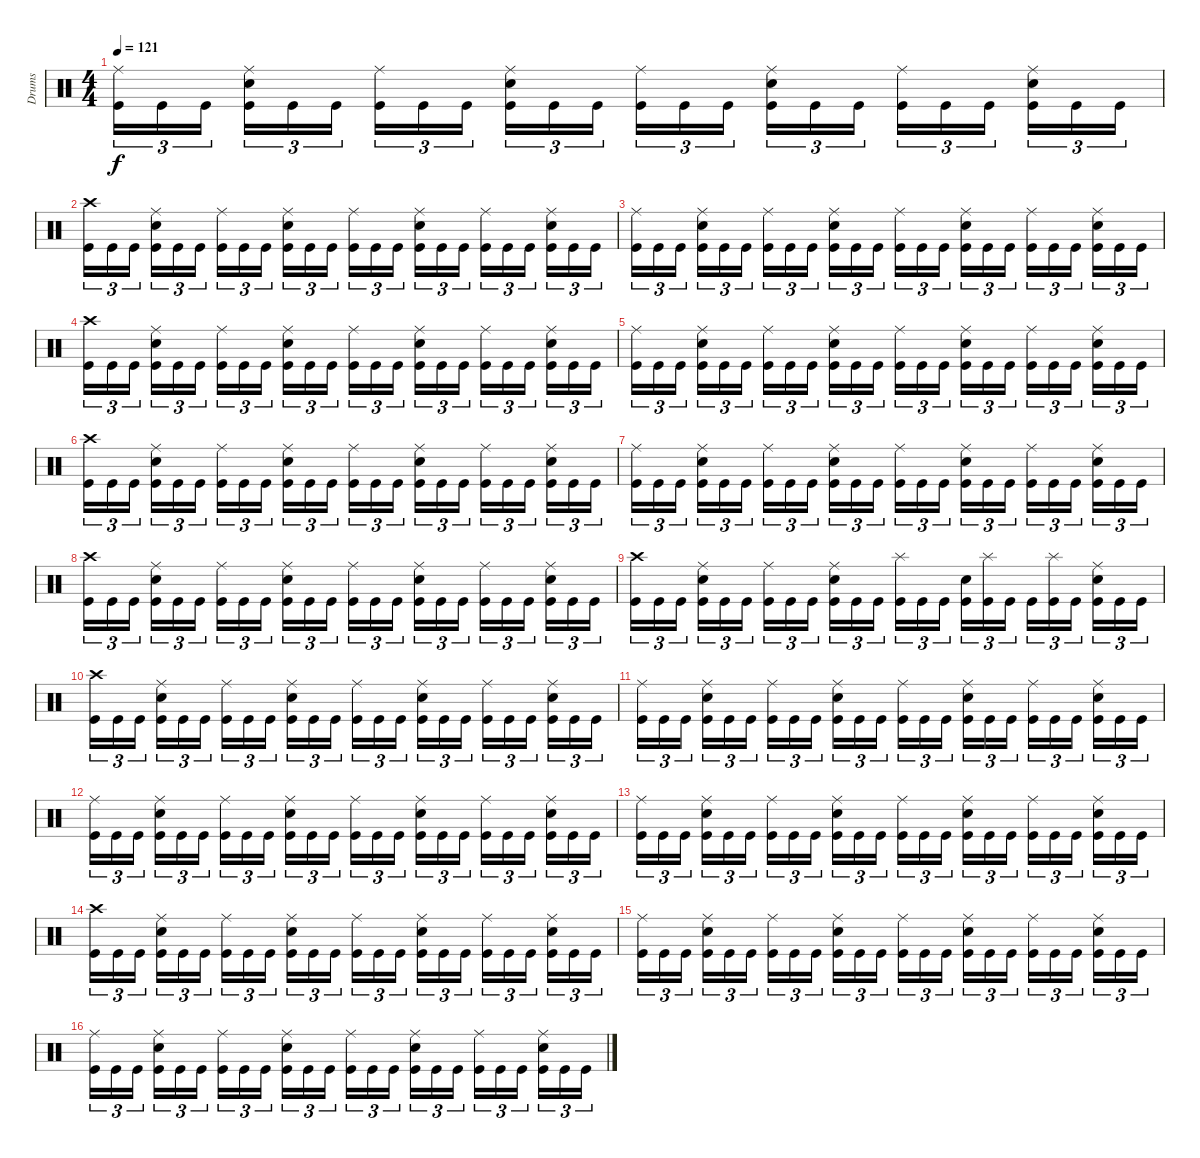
\track ("Drums" "Drums") {instrument percussion}
\staff {score}
\articulation defaults
\ts (4 4)
\tempo 121
\clef neutral
\ks c
("Ride (middle)" "Kick (hit)").16{tu (3 2) dy f} "Kick (hit)".16{tu (3 2)} "Kick (hit)".16{tu (3 2)} ("Ride (middle)" "Electric Snare (hit)" "Kick (hit)").16{tu (3 2)} "Kick (hit)".16{tu (3 2)} "Kick (hit)".16{tu (3 2)} ("Ride (middle)" "Kick (hit)").16{tu (3 2)} "Kick (hit)".16{tu (3 2)} "Kick (hit)".16{tu (3 2)} ("Ride (middle)" "Electric Snare (hit)" "Kick (hit)").16{tu (3 2)} "Kick (hit)".16{tu (3 2)} "Kick (hit)".16{tu (3 2)} ("Ride (middle)" "Kick (hit)").16{tu (3 2)} "Kick (hit)".16{tu (3 2)} "Kick (hit)".16{tu (3 2)} ("Ride (middle)" "Electric Snare (hit)" "Kick (hit)").16{tu (3 2)} "Kick (hit)".16{tu (3 2)} "Kick (hit)".16{tu (3 2)} ("Ride (middle)" "Kick (hit)").16{tu (3 2)} "Kick (hit)".16{tu (3 2)} "Kick (hit)".16{tu (3 2)} ("Ride (middle)" "Electric Snare (hit)" "Kick (hit)").16{tu (3 2)} "Kick (hit)".16{tu (3 2)} "Kick (hit)".16{tu (3 2)} |
("Crash high (hit)" "Kick (hit)").16{tu (3 2)} "Kick (hit)".16{tu (3 2)} "Kick (hit)".16{tu (3 2)} ("Ride (middle)" "Electric Snare (hit)" "Kick (hit)").16{tu (3 2)} "Kick (hit)".16{tu (3 2)} "Kick (hit)".16{tu (3 2)} ("Ride (middle)" "Kick (hit)").16{tu (3 2)} "Kick (hit)".16{tu (3 2)} "Kick (hit)".16{tu (3 2)} ("Ride (middle)" "Electric Snare (hit)" "Kick (hit)").16{tu (3 2)} "Kick (hit)".16{tu (3 2)} "Kick (hit)".16{tu (3 2)} ("Ride (middle)" "Kick (hit)").16{tu (3 2)} "Kick (hit)".16{tu (3 2)} "Kick (hit)".16{tu (3 2)} ("Ride (middle)" "Electric Snare (hit)" "Kick (hit)").16{tu (3 2)} "Kick (hit)".16{tu (3 2)} "Kick (hit)".16{tu (3 2)} ("Ride (middle)" "Kick (hit)").16{tu (3 2)} "Kick (hit)".16{tu (3 2)} "Kick (hit)".16{tu (3 2)} ("Ride (middle)" "Electric Snare (hit)" "Kick (hit)").16{tu (3 2)} "Kick (hit)".16{tu (3 2)} "Kick (hit)".16{tu (3 2)} |
("Ride (middle)" "Kick (hit)").16{tu (3 2)} "Kick (hit)".16{tu (3 2)} "Kick (hit)".16{tu (3 2)} ("Ride (middle)" "Electric Snare (hit)" "Kick (hit)").16{tu (3 2)} "Kick (hit)".16{tu (3 2)} "Kick (hit)".16{tu (3 2)} ("Ride (middle)" "Kick (hit)").16{tu (3 2)} "Kick (hit)".16{tu (3 2)} "Kick (hit)".16{tu (3 2)} ("Ride (middle)" "Electric Snare (hit)" "Kick (hit)").16{tu (3 2)} "Kick (hit)".16{tu (3 2)} "Kick (hit)".16{tu (3 2)} ("Ride (middle)" "Kick (hit)").16{tu (3 2)} "Kick (hit)".16{tu (3 2)} "Kick (hit)".16{tu (3 2)} ("Ride (middle)" "Electric Snare (hit)" "Kick (hit)").16{tu (3 2)} "Kick (hit)".16{tu (3 2)} "Kick (hit)".16{tu (3 2)} ("Ride (middle)" "Kick (hit)").16{tu (3 2)} "Kick (hit)".16{tu (3 2)} "Kick (hit)".16{tu (3 2)} ("Ride (middle)" "Electric Snare (hit)" "Kick (hit)").16{tu (3 2)} "Kick (hit)".16{tu (3 2)} "Kick (hit)".16{tu (3 2)} |
("Crash high (hit)" "Kick (hit)").16{tu (3 2)} "Kick (hit)".16{tu (3 2)} "Kick (hit)".16{tu (3 2)} ("Ride (middle)" "Electric Snare (hit)" "Kick (hit)").16{tu (3 2)} "Kick (hit)".16{tu (3 2)} "Kick (hit)".16{tu (3 2)} ("Ride (middle)" "Kick (hit)").16{tu (3 2)} "Kick (hit)".16{tu (3 2)} "Kick (hit)".16{tu (3 2)} ("Ride (middle)" "Electric Snare (hit)" "Kick (hit)").16{tu (3 2)} "Kick (hit)".16{tu (3 2)} "Kick (hit)".16{tu (3 2)} ("Ride (middle)" "Kick (hit)").16{tu (3 2)} "Kick (hit)".16{tu (3 2)} "Kick (hit)".16{tu (3 2)} ("Ride (middle)" "Electric Snare (hit)" "Kick (hit)").16{tu (3 2)} "Kick (hit)".16{tu (3 2)} "Kick (hit)".16{tu (3 2)} ("Ride (middle)" "Kick (hit)").16{tu (3 2)} "Kick (hit)".16{tu (3 2)} "Kick (hit)".16{tu (3 2)} ("Ride (middle)" "Electric Snare (hit)" "Kick (hit)").16{tu (3 2)} "Kick (hit)".16{tu (3 2)} "Kick (hit)".16{tu (3 2)} |
("Ride (middle)" "Kick (hit)").16{tu (3 2)} "Kick (hit)".16{tu (3 2)} "Kick (hit)".16{tu (3 2)} ("Ride (middle)" "Electric Snare (hit)" "Kick (hit)").16{tu (3 2)} "Kick (hit)".16{tu (3 2)} "Kick (hit)".16{tu (3 2)} ("Ride (middle)" "Kick (hit)").16{tu (3 2)} "Kick (hit)".16{tu (3 2)} "Kick (hit)".16{tu (3 2)} ("Ride (middle)" "Electric Snare (hit)" "Kick (hit)").16{tu (3 2)} "Kick (hit)".16{tu (3 2)} "Kick (hit)".16{tu (3 2)} ("Ride (middle)" "Kick (hit)").16{tu (3 2)} "Kick (hit)".16{tu (3 2)} "Kick (hit)".16{tu (3 2)} ("Ride (middle)" "Electric Snare (hit)" "Kick (hit)").16{tu (3 2)} "Kick (hit)".16{tu (3 2)} "Kick (hit)".16{tu (3 2)} ("Ride (middle)" "Kick (hit)").16{tu (3 2)} "Kick (hit)".16{tu (3 2)} "Kick (hit)".16{tu (3 2)} ("Ride (middle)" "Electric Snare (hit)" "Kick (hit)").16{tu (3 2)} "Kick (hit)".16{tu (3 2)} "Kick (hit)".16{tu (3 2)} |
("Crash high (hit)" "Kick (hit)").16{tu (3 2)} "Kick (hit)".16{tu (3 2)} "Kick (hit)".16{tu (3 2)} ("Ride (middle)" "Electric Snare (hit)" "Kick (hit)").16{tu (3 2)} "Kick (hit)".16{tu (3 2)} "Kick (hit)".16{tu (3 2)} ("Ride (middle)" "Kick (hit)").16{tu (3 2)} "Kick (hit)".16{tu (3 2)} "Kick (hit)".16{tu (3 2)} ("Ride (middle)" "Electric Snare (hit)" "Kick (hit)").16{tu (3 2)} "Kick (hit)".16{tu (3 2)} "Kick (hit)".16{tu (3 2)} ("Ride (middle)" "Kick (hit)").16{tu (3 2)} "Kick (hit)".16{tu (3 2)} "Kick (hit)".16{tu (3 2)} ("Ride (middle)" "Electric Snare (hit)" "Kick (hit)").16{tu (3 2)} "Kick (hit)".16{tu (3 2)} "Kick (hit)".16{tu (3 2)} ("Ride (middle)" "Kick (hit)").16{tu (3 2)} "Kick (hit)".16{tu (3 2)} "Kick (hit)".16{tu (3 2)} ("Ride (middle)" "Electric Snare (hit)" "Kick (hit)").16{tu (3 2)} "Kick (hit)".16{tu (3 2)} "Kick (hit)".16{tu (3 2)} |
("Ride (middle)" "Kick (hit)").16{tu (3 2)} "Kick (hit)".16{tu (3 2)} "Kick (hit)".16{tu (3 2)} ("Ride (middle)" "Electric Snare (hit)" "Kick (hit)").16{tu (3 2)} "Kick (hit)".16{tu (3 2)} "Kick (hit)".16{tu (3 2)} ("Ride (middle)" "Kick (hit)").16{tu (3 2)} "Kick (hit)".16{tu (3 2)} "Kick (hit)".16{tu (3 2)} ("Ride (middle)" "Electric Snare (hit)" "Kick (hit)").16{tu (3 2)} "Kick (hit)".16{tu (3 2)} "Kick (hit)".16{tu (3 2)} ("Ride (middle)" "Kick (hit)").16{tu (3 2)} "Kick (hit)".16{tu (3 2)} "Kick (hit)".16{tu (3 2)} ("Ride (middle)" "Electric Snare (hit)" "Kick (hit)").16{tu (3 2)} "Kick (hit)".16{tu (3 2)} "Kick (hit)".16{tu (3 2)} ("Ride (middle)" "Kick (hit)").16{tu (3 2)} "Kick (hit)".16{tu (3 2)} "Kick (hit)".16{tu (3 2)} ("Ride (middle)" "Electric Snare (hit)" "Kick (hit)").16{tu (3 2)} "Kick (hit)".16{tu (3 2)} "Kick (hit)".16{tu (3 2)} |
("Crash high (hit)" "Kick (hit)").16{tu (3 2)} "Kick (hit)".16{tu (3 2)} "Kick (hit)".16{tu (3 2)} ("Ride (middle)" "Electric Snare (hit)" "Kick (hit)").16{tu (3 2)} "Kick (hit)".16{tu (3 2)} "Kick (hit)".16{tu (3 2)} ("Ride (middle)" "Kick (hit)").16{tu (3 2)} "Kick (hit)".16{tu (3 2)} "Kick (hit)".16{tu (3 2)} ("Ride (middle)" "Electric Snare (hit)" "Kick (hit)").16{tu (3 2)} "Kick (hit)".16{tu (3 2)} "Kick (hit)".16{tu (3 2)} ("Ride (middle)" "Kick (hit)").16{tu (3 2)} "Kick (hit)".16{tu (3 2)} "Kick (hit)".16{tu (3 2)} ("Ride (middle)" "Electric Snare (hit)" "Kick (hit)").16{tu (3 2)} "Kick (hit)".16{tu (3 2)} "Kick (hit)".16{tu (3 2)} ("Ride (middle)" "Kick (hit)").16{tu (3 2)} "Kick (hit)".16{tu (3 2)} "Kick (hit)".16{tu (3 2)} ("Ride (middle)" "Electric Snare (hit)" "Kick (hit)").16{tu (3 2)} "Kick (hit)".16{tu (3 2)} "Kick (hit)".16{tu (3 2)} |
("Crash high (hit)" "Kick (hit)").16{tu (3 2)} "Kick (hit)".16{tu (3 2)} "Kick (hit)".16{tu (3 2)} ("Ride (middle)" "Electric Snare (hit)" "Kick (hit)").16{tu (3 2)} "Kick (hit)".16{tu (3 2)} "Kick (hit)".16{tu (3 2)} ("Ride (middle)" "Kick (hit)").16{tu (3 2)} "Kick (hit)".16{tu (3 2)} "Kick (hit)".16{tu (3 2)} ("Ride (middle)" "Electric Snare (hit)" "Kick (hit)").16{tu (3 2)} "Kick (hit)".16{tu (3 2)} "Kick (hit)".16{tu (3 2)} ("Splash (hit)" "Kick (hit)").16{tu (3 2)} "Kick (hit)".16{tu (3 2)} "Kick (hit)".16{tu (3 2)} ("Electric Snare (hit)" "Kick (hit)").16{tu (3 2)} ("Splash (hit)" "Kick (hit)").16{tu (3 2)} "Kick (hit)".16{tu (3 2)} "Kick (hit)".16{tu (3 2)} ("Splash (hit)" "Kick (hit)").16{tu (3 2)} "Kick (hit)".16{tu (3 2)} ("Ride (middle)" "Electric Snare (hit)" "Kick (hit)").16{tu (3 2)} "Kick (hit)".16{tu (3 2)} "Kick (hit)".16{tu (3 2)} |
("Crash high (hit)" "Kick (hit)").16{tu (3 2)} "Kick (hit)".16{tu (3 2)} "Kick (hit)".16{tu (3 2)} ("Ride (middle)" "Electric Snare (hit)" "Kick (hit)").16{tu (3 2)} "Kick (hit)".16{tu (3 2)} "Kick (hit)".16{tu (3 2)} ("Ride (middle)" "Kick (hit)").16{tu (3 2)} "Kick (hit)".16{tu (3 2)} "Kick (hit)".16{tu (3 2)} ("Ride (middle)" "Electric Snare (hit)" "Kick (hit)").16{tu (3 2)} "Kick (hit)".16{tu (3 2)} "Kick (hit)".16{tu (3 2)} ("Ride (middle)" "Kick (hit)").16{tu (3 2)} "Kick (hit)".16{tu (3 2)} "Kick (hit)".16{tu (3 2)} ("Ride (middle)" "Electric Snare (hit)" "Kick (hit)").16{tu (3 2)} "Kick (hit)".16{tu (3 2)} "Kick (hit)".16{tu (3 2)} ("Ride (middle)" "Kick (hit)").16{tu (3 2)} "Kick (hit)".16{tu (3 2)} "Kick (hit)".16{tu (3 2)} ("Ride (middle)" "Electric Snare (hit)" "Kick (hit)").16{tu (3 2)} "Kick (hit)".16{tu (3 2)} "Kick (hit)".16{tu (3 2)} |
("Ride (middle)" "Kick (hit)").16{tu (3 2)} "Kick (hit)".16{tu (3 2)} "Kick (hit)".16{tu (3 2)} ("Ride (middle)" "Electric Snare (hit)" "Kick (hit)").16{tu (3 2)} "Kick (hit)".16{tu (3 2)} "Kick (hit)".16{tu (3 2)} ("Ride (middle)" "Kick (hit)").16{tu (3 2)} "Kick (hit)".16{tu (3 2)} "Kick (hit)".16{tu (3 2)} ("Ride (middle)" "Electric Snare (hit)" "Kick (hit)").16{tu (3 2)} "Kick (hit)".16{tu (3 2)} "Kick (hit)".16{tu (3 2)} ("Ride (middle)" "Kick (hit)").16{tu (3 2)} "Kick (hit)".16{tu (3 2)} "Kick (hit)".16{tu (3 2)} ("Ride (middle)" "Electric Snare (hit)" "Kick (hit)").16{tu (3 2)} "Kick (hit)".16{tu (3 2)} "Kick (hit)".16{tu (3 2)} ("Ride (middle)" "Kick (hit)").16{tu (3 2)} "Kick (hit)".16{tu (3 2)} "Kick (hit)".16{tu (3 2)} ("Ride (middle)" "Electric Snare (hit)" "Kick (hit)").16{tu (3 2)} "Kick (hit)".16{tu (3 2)} "Kick (hit)".16{tu (3 2)} |
("Ride (middle)" "Kick (hit)").16{tu (3 2)} "Kick (hit)".16{tu (3 2)} "Kick (hit)".16{tu (3 2)} ("Ride (middle)" "Electric Snare (hit)" "Kick (hit)").16{tu (3 2)} "Kick (hit)".16{tu (3 2)} "Kick (hit)".16{tu (3 2)} ("Ride (middle)" "Kick (hit)").16{tu (3 2)} "Kick (hit)".16{tu (3 2)} "Kick (hit)".16{tu (3 2)} ("Ride (middle)" "Electric Snare (hit)" "Kick (hit)").16{tu (3 2)} "Kick (hit)".16{tu (3 2)} "Kick (hit)".16{tu (3 2)} ("Ride (middle)" "Kick (hit)").16{tu (3 2)} "Kick (hit)".16{tu (3 2)} "Kick (hit)".16{tu (3 2)} ("Ride (middle)" "Electric Snare (hit)" "Kick (hit)").16{tu (3 2)} "Kick (hit)".16{tu (3 2)} "Kick (hit)".16{tu (3 2)} ("Ride (middle)" "Kick (hit)").16{tu (3 2)} "Kick (hit)".16{tu (3 2)} "Kick (hit)".16{tu (3 2)} ("Ride (middle)" "Electric Snare (hit)" "Kick (hit)").16{tu (3 2)} "Kick (hit)".16{tu (3 2)} "Kick (hit)".16{tu (3 2)} |
("Ride (middle)" "Kick (hit)").16{tu (3 2)} "Kick (hit)".16{tu (3 2)} "Kick (hit)".16{tu (3 2)} ("Ride (middle)" "Electric Snare (hit)" "Kick (hit)").16{tu (3 2)} "Kick (hit)".16{tu (3 2)} "Kick (hit)".16{tu (3 2)} ("Ride (middle)" "Kick (hit)").16{tu (3 2)} "Kick (hit)".16{tu (3 2)} "Kick (hit)".16{tu (3 2)} ("Ride (middle)" "Electric Snare (hit)" "Kick (hit)").16{tu (3 2)} "Kick (hit)".16{tu (3 2)} "Kick (hit)".16{tu (3 2)} ("Ride (middle)" "Kick (hit)").16{tu (3 2)} "Kick (hit)".16{tu (3 2)} "Kick (hit)".16{tu (3 2)} ("Ride (middle)" "Electric Snare (hit)" "Kick (hit)").16{tu (3 2)} "Kick (hit)".16{tu (3 2)} "Kick (hit)".16{tu (3 2)} ("Ride (middle)" "Kick (hit)").16{tu (3 2)} "Kick (hit)".16{tu (3 2)} "Kick (hit)".16{tu (3 2)} ("Ride (middle)" "Electric Snare (hit)" "Kick (hit)").16{tu (3 2)} "Kick (hit)".16{tu (3 2)} "Kick (hit)".16{tu (3 2)} |
("Crash high (hit)" "Kick (hit)").16{tu (3 2)} "Kick (hit)".16{tu (3 2)} "Kick (hit)".16{tu (3 2)} ("Ride (middle)" "Electric Snare (hit)" "Kick (hit)").16{tu (3 2)} "Kick (hit)".16{tu (3 2)} "Kick (hit)".16{tu (3 2)} ("Ride (middle)" "Kick (hit)").16{tu (3 2)} "Kick (hit)".16{tu (3 2)} "Kick (hit)".16{tu (3 2)} ("Ride (middle)" "Electric Snare (hit)" "Kick (hit)").16{tu (3 2)} "Kick (hit)".16{tu (3 2)} "Kick (hit)".16{tu (3 2)} ("Ride (middle)" "Kick (hit)").16{tu (3 2)} "Kick (hit)".16{tu (3 2)} "Kick (hit)".16{tu (3 2)} ("Ride (middle)" "Electric Snare (hit)" "Kick (hit)").16{tu (3 2)} "Kick (hit)".16{tu (3 2)} "Kick (hit)".16{tu (3 2)} ("Ride (middle)" "Kick (hit)").16{tu (3 2)} "Kick (hit)".16{tu (3 2)} "Kick (hit)".16{tu (3 2)} ("Ride (middle)" "Electric Snare (hit)" "Kick (hit)").16{tu (3 2)} "Kick (hit)".16{tu (3 2)} "Kick (hit)".16{tu (3 2)} |
("Ride (middle)" "Kick (hit)").16{tu (3 2)} "Kick (hit)".16{tu (3 2)} "Kick (hit)".16{tu (3 2)} ("Ride (middle)" "Electric Snare (hit)" "Kick (hit)").16{tu (3 2)} "Kick (hit)".16{tu (3 2)} "Kick (hit)".16{tu (3 2)} ("Ride (middle)" "Kick (hit)").16{tu (3 2)} "Kick (hit)".16{tu (3 2)} "Kick (hit)".16{tu (3 2)} ("Ride (middle)" "Electric Snare (hit)" "Kick (hit)").16{tu (3 2)} "Kick (hit)".16{tu (3 2)} "Kick (hit)".16{tu (3 2)} ("Ride (middle)" "Kick (hit)").16{tu (3 2)} "Kick (hit)".16{tu (3 2)} "Kick (hit)".16{tu (3 2)} ("Ride (middle)" "Electric Snare (hit)" "Kick (hit)").16{tu (3 2)} "Kick (hit)".16{tu (3 2)} "Kick (hit)".16{tu (3 2)} ("Ride (middle)" "Kick (hit)").16{tu (3 2)} "Kick (hit)".16{tu (3 2)} "Kick (hit)".16{tu (3 2)} ("Ride (middle)" "Electric Snare (hit)" "Kick (hit)").16{tu (3 2)} "Kick (hit)".16{tu (3 2)} "Kick (hit)".16{tu (3 2)} |
("Ride (middle)" "Kick (hit)").16{tu (3 2)} "Kick (hit)".16{tu (3 2)} "Kick (hit)".16{tu (3 2)} ("Ride (middle)" "Electric Snare (hit)" "Kick (hit)").16{tu (3 2)} "Kick (hit)".16{tu (3 2)} "Kick (hit)".16{tu (3 2)} ("Ride (middle)" "Kick (hit)").16{tu (3 2)} "Kick (hit)".16{tu (3 2)} "Kick (hit)".16{tu (3 2)} ("Ride (middle)" "Electric Snare (hit)" "Kick (hit)").16{tu (3 2)} "Kick (hit)".16{tu (3 2)} "Kick (hit)".16{tu (3 2)} ("Ride (middle)" "Kick (hit)").16{tu (3 2)} "Kick (hit)".16{tu (3 2)} "Kick (hit)".16{tu (3 2)} ("Ride (middle)" "Electric Snare (hit)" "Kick (hit)").16{tu (3 2)} "Kick (hit)".16{tu (3 2)} "Kick (hit)".16{tu (3 2)} ("Ride (middle)" "Kick (hit)").16{tu (3 2)} "Kick (hit)".16{tu (3 2)} "Kick (hit)".16{tu (3 2)} ("Ride (middle)" "Electric Snare (hit)" "Kick (hit)").16{tu (3 2)} "Kick (hit)".16{tu (3 2)} "Kick (hit)".16{tu (3 2)}
